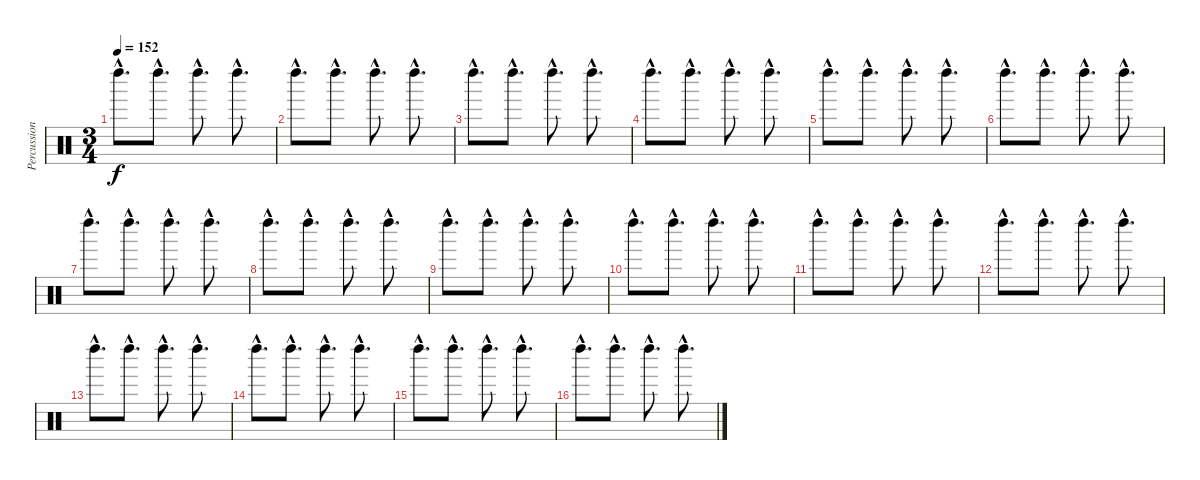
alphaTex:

\track ("Percussion" "Percussion") {instrument percussion}
\staff {score}
\articulation defaults
\ts (3 4)
\tempo 152
\clef neutral
\ks c "Left Maraca (hit)"{hac}.8{d dy f} "Left Maraca (hit)"{hac}.8{d} "Left Maraca (hit)"{hac}.8{d} "Left Maraca (hit)"{hac}.8{d}
|
"Left Maraca (hit)"{hac}.8{d} "Left Maraca (hit)"{hac}.8{d} "Left Maraca (hit)"{hac}.8{d} "Left Maraca (hit)"{hac}.8{d} |
"Left Maraca (hit)"{hac}.8{d} "Left Maraca (hit)"{hac}.8{d} "Left Maraca (hit)"{hac}.8{d} "Left Maraca (hit)"{hac}.8{d} |
"Left Maraca (hit)"{hac}.8{d} "Left Maraca (hit)"{hac}.8{d} "Left Maraca (hit)"{hac}.8{d} "Left Maraca (hit)"{hac}.8{d} |
"Left Maraca (hit)"{hac}.8{d} "Left Maraca (hit)"{hac}.8{d} "Left Maraca (hit)"{hac}.8{d} "Left Maraca (hit)"{hac}.8{d} |
"Left Maraca (hit)"{hac}.8{d} "Left Maraca (hit)"{hac}.8{d} "Left Maraca (hit)"{hac}.8{d} "Left Maraca (hit)"{hac}.8{d} |
"Left Maraca (hit)"{hac}.8{d} "Left Maraca (hit)"{hac}.8{d} "Left Maraca (hit)"{hac}.8{d} "Left Maraca (hit)"{hac}.8{d} |
"Left Maraca (hit)"{hac}.8{d} "Left Maraca (hit)"{hac}.8{d} "Left Maraca (hit)"{hac}.8{d} "Left Maraca (hit)"{hac}.8{d} |
"Left Maraca (hit)"{hac}.8{d} "Left Maraca (hit)"{hac}.8{d} "Left Maraca (hit)"{hac}.8{d} "Left Maraca (hit)"{hac}.8{d} |
"Left Maraca (hit)"{hac}.8{d} "Left Maraca (hit)"{hac}.8{d} "Left Maraca (hit)"{hac}.8{d} "Left Maraca (hit)"{hac}.8{d} |
"Left Maraca (hit)"{hac}.8{d} "Left Maraca (hit)"{hac}.8{d} "Left Maraca (hit)"{hac}.8{d} "Left Maraca (hit)"{hac}.8{d} |
"Left Maraca (hit)"{hac}.8{d} "Left Maraca (hit)"{hac}.8{d} "Left Maraca (hit)"{hac}.8{d} "Left Maraca (hit)"{hac}.8{d} |
"Left Maraca (hit)"{hac}.8{d} "Left Maraca (hit)"{hac}.8{d} "Left Maraca (hit)"{hac}.8{d} "Left Maraca (hit)"{hac}.8{d} |
"Left Maraca (hit)"{hac}.8{d} "Left Maraca (hit)"{hac}.8{d} "Left Maraca (hit)"{hac}.8{d} "Left Maraca (hit)"{hac}.8{d} |
"Left Maraca (hit)"{hac}.8{d} "Left Maraca (hit)"{hac}.8{d} "Left Maraca (hit)"{hac}.8{d} "Left Maraca (hit)"{hac}.8{d} |
"Left Maraca (hit)"{hac}.8{d} "Left Maraca (hit)"{hac}.8{d} "Left Maraca (hit)"{hac}.8{d} "Left Maraca (hit)"{hac}.8{d}
